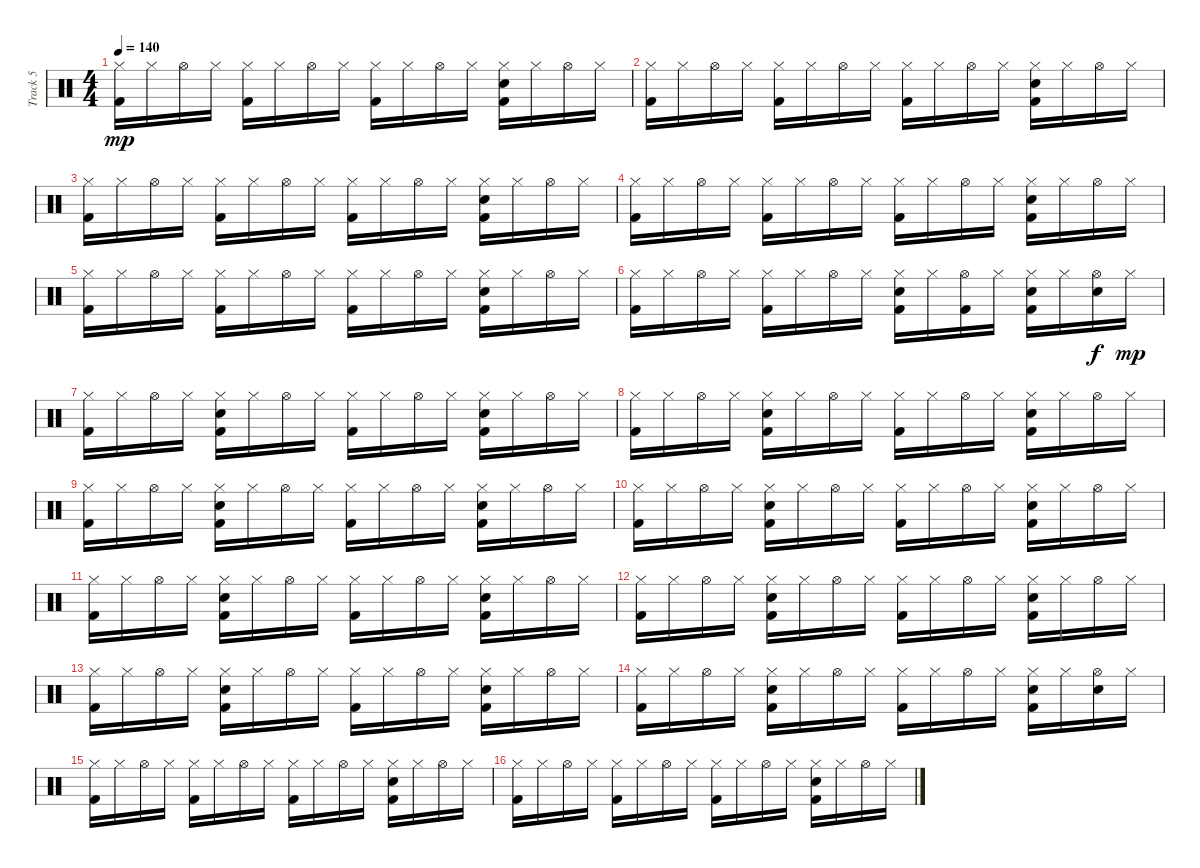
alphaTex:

\track ("Track 5" "Track 5") {instrument percussion}
\staff {score}
\articulation defaults
\ts (4 4)
\tempo 140
\clef neutral
\ks c
("Hi-Hat (closed)" "Kick (hit) 2").16{dy mp} "Hi-Hat (closed)".16 "Hi-Hat (open)".16 "Hi-Hat (closed)".16 ("Hi-Hat (closed)" "Kick (hit) 2").16 "Hi-Hat (closed)".16 "Hi-Hat (open)".16 "Hi-Hat (closed)".16 ("Hi-Hat (closed)" "Kick (hit) 2").16 "Hi-Hat (closed)".16 "Hi-Hat (open)".16 "Hi-Hat (closed)".16 ("Hi-Hat (closed)" "Electric Snare (hit)" "Kick (hit) 2").16 "Hi-Hat (closed)".16 "Hi-Hat (open)".16 "Hi-Hat (closed)".16 |
("Hi-Hat (closed)" "Kick (hit) 2").16 "Hi-Hat (closed)".16 "Hi-Hat (open)".16 "Hi-Hat (closed)".16 ("Hi-Hat (closed)" "Kick (hit) 2").16 "Hi-Hat (closed)".16 "Hi-Hat (open)".16 "Hi-Hat (closed)".16 ("Hi-Hat (closed)" "Kick (hit) 2").16 "Hi-Hat (closed)".16 "Hi-Hat (open)".16 "Hi-Hat (closed)".16 ("Hi-Hat (closed)" "Electric Snare (hit)" "Kick (hit) 2").16 "Hi-Hat (closed)".16 "Hi-Hat (open)".16 "Hi-Hat (closed)".16 |
("Hi-Hat (closed)" "Kick (hit) 2").16 "Hi-Hat (closed)".16 "Hi-Hat (open)".16 "Hi-Hat (closed)".16 ("Hi-Hat (closed)" "Kick (hit) 2").16 "Hi-Hat (closed)".16 "Hi-Hat (open)".16 "Hi-Hat (closed)".16 ("Hi-Hat (closed)" "Kick (hit) 2").16 "Hi-Hat (closed)".16 "Hi-Hat (open)".16 "Hi-Hat (closed)".16 ("Hi-Hat (closed)" "Electric Snare (hit)" "Kick (hit) 2").16 "Hi-Hat (closed)".16 "Hi-Hat (open)".16 "Hi-Hat (closed)".16 |
("Hi-Hat (closed)" "Kick (hit) 2").16 "Hi-Hat (closed)".16 "Hi-Hat (open)".16 "Hi-Hat (closed)".16 ("Hi-Hat (closed)" "Kick (hit) 2").16 "Hi-Hat (closed)".16 "Hi-Hat (open)".16 "Hi-Hat (closed)".16 ("Hi-Hat (closed)" "Kick (hit) 2").16 "Hi-Hat (closed)".16 "Hi-Hat (open)".16 "Hi-Hat (closed)".16 ("Hi-Hat (closed)" "Electric Snare (hit)" "Kick (hit) 2").16 "Hi-Hat (closed)".16 "Hi-Hat (open)".16 "Hi-Hat (closed)".16 |
("Hi-Hat (closed)" "Kick (hit) 2").16 "Hi-Hat (closed)".16 "Hi-Hat (open)".16 "Hi-Hat (closed)".16 ("Hi-Hat (closed)" "Kick (hit) 2").16 "Hi-Hat (closed)".16 "Hi-Hat (open)".16 "Hi-Hat (closed)".16 ("Hi-Hat (closed)" "Kick (hit) 2").16 "Hi-Hat (closed)".16 "Hi-Hat (open)".16 "Hi-Hat (closed)".16 ("Hi-Hat (closed)" "Electric Snare (hit)" "Kick (hit) 2").16 "Hi-Hat (closed)".16 "Hi-Hat (open)".16 "Hi-Hat (closed)".16 |
("Hi-Hat (closed)" "Kick (hit) 2").16 "Hi-Hat (closed)".16 "Hi-Hat (open)".16 "Hi-Hat (closed)".16 ("Hi-Hat (closed)" "Kick (hit) 2").16 "Hi-Hat (closed)".16 "Hi-Hat (open)".16 "Hi-Hat (closed)".16 ("Hi-Hat (closed)" "Electric Snare (hit)" "Kick (hit) 2").16 "Hi-Hat (closed)".16 ("Hi-Hat (open)" "Kick (hit) 2").16 "Hi-Hat (closed)".16 ("Hi-Hat (closed)" "Electric Snare (hit)" "Kick (hit) 2").16 "Hi-Hat (closed)".16 ("Hi-Hat (open)" "Electric Snare (hit)").16{dy f} "Hi-Hat (closed)".16{dy mp} |
("Hi-Hat (closed)" "Kick (hit) 2").16 "Hi-Hat (closed)".16 "Hi-Hat (open)".16 "Hi-Hat (closed)".16 ("Hi-Hat (closed)" "Electric Snare (hit)" "Kick (hit) 2").16 "Hi-Hat (closed)".16 "Hi-Hat (open)".16 "Hi-Hat (closed)".16 ("Hi-Hat (closed)" "Kick (hit) 2").16 "Hi-Hat (closed)".16 "Hi-Hat (open)".16 "Hi-Hat (closed)".16 ("Hi-Hat (closed)" "Electric Snare (hit)" "Kick (hit) 2").16 "Hi-Hat (closed)".16 "Hi-Hat (open)".16 "Hi-Hat (closed)".16 |
("Hi-Hat (closed)" "Kick (hit) 2").16 "Hi-Hat (closed)".16 "Hi-Hat (open)".16 "Hi-Hat (closed)".16 ("Hi-Hat (closed)" "Electric Snare (hit)" "Kick (hit) 2").16 "Hi-Hat (closed)".16 "Hi-Hat (open)".16 "Hi-Hat (closed)".16 ("Hi-Hat (closed)" "Kick (hit) 2").16 "Hi-Hat (closed)".16 "Hi-Hat (open)".16 "Hi-Hat (closed)".16 ("Hi-Hat (closed)" "Electric Snare (hit)" "Kick (hit) 2").16 "Hi-Hat (closed)".16 "Hi-Hat (open)".16 "Hi-Hat (closed)".16 |
("Hi-Hat (closed)" "Kick (hit) 2").16 "Hi-Hat (closed)".16 "Hi-Hat (open)".16 "Hi-Hat (closed)".16 ("Hi-Hat (closed)" "Electric Snare (hit)" "Kick (hit) 2").16 "Hi-Hat (closed)".16 "Hi-Hat (open)".16 "Hi-Hat (closed)".16 ("Hi-Hat (closed)" "Kick (hit) 2").16 "Hi-Hat (closed)".16 "Hi-Hat (open)".16 "Hi-Hat (closed)".16 ("Hi-Hat (closed)" "Electric Snare (hit)" "Kick (hit) 2").16 "Hi-Hat (closed)".16 "Hi-Hat (open)".16 "Hi-Hat (closed)".16 |
("Hi-Hat (closed)" "Kick (hit) 2").16 "Hi-Hat (closed)".16 "Hi-Hat (open)".16 "Hi-Hat (closed)".16 ("Hi-Hat (closed)" "Electric Snare (hit)" "Kick (hit) 2").16 "Hi-Hat (closed)".16 "Hi-Hat (open)".16 "Hi-Hat (closed)".16 ("Hi-Hat (closed)" "Kick (hit) 2").16 "Hi-Hat (closed)".16 "Hi-Hat (open)".16 "Hi-Hat (closed)".16 ("Hi-Hat (closed)" "Electric Snare (hit)" "Kick (hit) 2").16 "Hi-Hat (closed)".16 "Hi-Hat (open)".16 "Hi-Hat (closed)".16 |
("Hi-Hat (closed)" "Kick (hit) 2").16 "Hi-Hat (closed)".16 "Hi-Hat (open)".16 "Hi-Hat (closed)".16 ("Hi-Hat (closed)" "Electric Snare (hit)" "Kick (hit) 2").16 "Hi-Hat (closed)".16 "Hi-Hat (open)".16 "Hi-Hat (closed)".16 ("Hi-Hat (closed)" "Kick (hit) 2").16 "Hi-Hat (closed)".16 "Hi-Hat (open)".16 "Hi-Hat (closed)".16 ("Hi-Hat (closed)" "Electric Snare (hit)" "Kick (hit) 2").16 "Hi-Hat (closed)".16 "Hi-Hat (open)".16 "Hi-Hat (closed)".16 |
("Hi-Hat (closed)" "Kick (hit) 2").16 "Hi-Hat (closed)".16 "Hi-Hat (open)".16 "Hi-Hat (closed)".16 ("Hi-Hat (closed)" "Electric Snare (hit)" "Kick (hit) 2").16 "Hi-Hat (closed)".16 "Hi-Hat (open)".16 "Hi-Hat (closed)".16 ("Hi-Hat (closed)" "Kick (hit) 2").16 "Hi-Hat (closed)".16 "Hi-Hat (open)".16 "Hi-Hat (closed)".16 ("Hi-Hat (closed)" "Electric Snare (hit)" "Kick (hit) 2").16 "Hi-Hat (closed)".16 "Hi-Hat (open)".16 "Hi-Hat (closed)".16 |
("Hi-Hat (closed)" "Kick (hit) 2").16 "Hi-Hat (closed)".16 "Hi-Hat (open)".16 "Hi-Hat (closed)".16 ("Hi-Hat (closed)" "Electric Snare (hit)" "Kick (hit) 2").16 "Hi-Hat (closed)".16 "Hi-Hat (open)".16 "Hi-Hat (closed)".16 ("Hi-Hat (closed)" "Kick (hit) 2").16 "Hi-Hat (closed)".16 "Hi-Hat (open)".16 "Hi-Hat (closed)".16 ("Hi-Hat (closed)" "Electric Snare (hit)" "Kick (hit) 2").16 "Hi-Hat (closed)".16 "Hi-Hat (open)".16 "Hi-Hat (closed)".16 |
("Hi-Hat (closed)" "Kick (hit) 2").16 "Hi-Hat (closed)".16 "Hi-Hat (open)".16 "Hi-Hat (closed)".16 ("Hi-Hat (closed)" "Electric Snare (hit)" "Kick (hit) 2").16 "Hi-Hat (closed)".16 "Hi-Hat (open)".16 "Hi-Hat (closed)".16 ("Hi-Hat (closed)" "Kick (hit) 2").16 "Hi-Hat (closed)".16 "Hi-Hat (open)".16 "Hi-Hat (closed)".16 ("Hi-Hat (closed)" "Electric Snare (hit)" "Kick (hit) 2").16 "Hi-Hat (closed)".16 ("Hi-Hat (open)" "Electric Snare (hit)").16 "Hi-Hat (closed)".16 |
("Hi-Hat (closed)" "Kick (hit) 2").16 "Hi-Hat (closed)".16 "Hi-Hat (open)".16 "Hi-Hat (closed)".16 ("Hi-Hat (closed)" "Kick (hit) 2").16 "Hi-Hat (closed)".16 "Hi-Hat (open)".16 "Hi-Hat (closed)".16 ("Hi-Hat (closed)" "Kick (hit) 2").16 "Hi-Hat (closed)".16 "Hi-Hat (open)".16 "Hi-Hat (closed)".16 ("Hi-Hat (closed)" "Electric Snare (hit)" "Kick (hit) 2").16 "Hi-Hat (closed)".16 "Hi-Hat (open)".16 "Hi-Hat (closed)".16 |
("Hi-Hat (closed)" "Kick (hit) 2").16 "Hi-Hat (closed)".16 "Hi-Hat (open)".16 "Hi-Hat (closed)".16 ("Hi-Hat (closed)" "Kick (hit) 2").16 "Hi-Hat (closed)".16 "Hi-Hat (open)".16 "Hi-Hat (closed)".16 ("Hi-Hat (closed)" "Kick (hit) 2").16 "Hi-Hat (closed)".16 "Hi-Hat (open)".16 "Hi-Hat (closed)".16 ("Hi-Hat (closed)" "Electric Snare (hit)" "Kick (hit) 2").16 "Hi-Hat (closed)".16 "Hi-Hat (open)".16 "Hi-Hat (closed)".16
